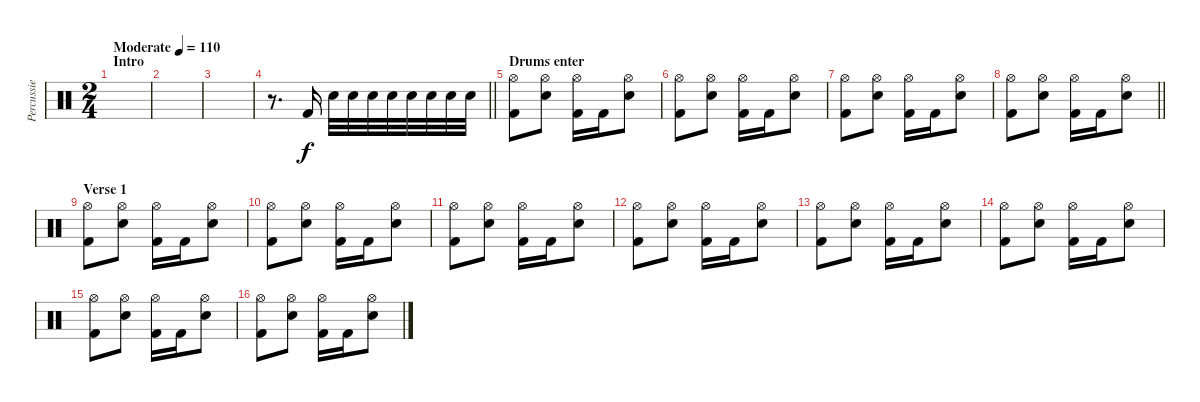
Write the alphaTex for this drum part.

\track ("Percussie" "Percussie") {instrument percussion}
\staff {score}
\articulation defaults
\ts (2 4)
\section ("" "Intro")
\tempo (110 "Moderate")
\clef neutral
\ks c
|
|
|
\barLineRight lightlight
r.8{d} "Kick (hit) 2".16 "Electric Snare (hit)".32 "Electric Snare (hit)".32 "Electric Snare (hit)".32 "Electric Snare (hit)".32 "Electric Snare (hit)".32 "Electric Snare (hit)".32 "Electric Snare (hit)".32 "Electric Snare (hit)".32 |
\section ("" "Drums enter")
("Hi-Hat (open)" "Kick (hit) 2").8 ("Hi-Hat (open)" "Electric Snare (hit)").8 ("Hi-Hat (open)" "Kick (hit) 2").16 "Kick (hit) 2".16 ("Hi-Hat (open)" "Electric Snare (hit)").8 |
("Hi-Hat (open)" "Kick (hit) 2").8 ("Hi-Hat (open)" "Electric Snare (hit)").8 ("Hi-Hat (open)" "Kick (hit) 2").16 "Kick (hit) 2".16 ("Hi-Hat (open)" "Electric Snare (hit)").8 |
("Hi-Hat (open)" "Kick (hit) 2").8 ("Hi-Hat (open)" "Electric Snare (hit)").8 ("Hi-Hat (open)" "Kick (hit) 2").16 "Kick (hit) 2".16 ("Hi-Hat (open)" "Electric Snare (hit)").8 |
\barLineRight lightlight
("Hi-Hat (open)" "Kick (hit) 2").8 ("Hi-Hat (open)" "Electric Snare (hit)").8 ("Hi-Hat (open)" "Kick (hit) 2").16 "Kick (hit) 2".16 ("Hi-Hat (open)" "Electric Snare (hit)").8 |
\section ("" "Verse 1")
("Hi-Hat (open)" "Kick (hit) 2").8 ("Hi-Hat (open)" "Electric Snare (hit)").8 ("Hi-Hat (open)" "Kick (hit) 2").16 "Kick (hit) 2".16 ("Hi-Hat (open)" "Electric Snare (hit)").8 |
("Hi-Hat (open)" "Kick (hit) 2").8 ("Hi-Hat (open)" "Electric Snare (hit)").8 ("Hi-Hat (open)" "Kick (hit) 2").16 "Kick (hit) 2".16 ("Hi-Hat (open)" "Electric Snare (hit)").8 |
("Hi-Hat (open)" "Kick (hit) 2").8 ("Hi-Hat (open)" "Electric Snare (hit)").8 ("Hi-Hat (open)" "Kick (hit) 2").16 "Kick (hit) 2".16 ("Hi-Hat (open)" "Electric Snare (hit)").8 |
("Hi-Hat (open)" "Kick (hit) 2").8 ("Hi-Hat (open)" "Electric Snare (hit)").8 ("Hi-Hat (open)" "Kick (hit) 2").16 "Kick (hit) 2".16 ("Hi-Hat (open)" "Electric Snare (hit)").8 |
("Hi-Hat (open)" "Kick (hit) 2").8 ("Hi-Hat (open)" "Electric Snare (hit)").8 ("Hi-Hat (open)" "Kick (hit) 2").16 "Kick (hit) 2".16 ("Hi-Hat (open)" "Electric Snare (hit)").8 |
("Hi-Hat (open)" "Kick (hit) 2").8 ("Hi-Hat (open)" "Electric Snare (hit)").8 ("Hi-Hat (open)" "Kick (hit) 2").16 "Kick (hit) 2".16 ("Hi-Hat (open)" "Electric Snare (hit)").8 |
("Hi-Hat (open)" "Kick (hit) 2").8 ("Hi-Hat (open)" "Electric Snare (hit)").8 ("Hi-Hat (open)" "Kick (hit) 2").16 "Kick (hit) 2".16 ("Hi-Hat (open)" "Electric Snare (hit)").8 |
("Hi-Hat (open)" "Kick (hit) 2").8 ("Hi-Hat (open)" "Electric Snare (hit)").8 ("Hi-Hat (open)" "Kick (hit) 2").16 "Kick (hit) 2".16 ("Hi-Hat (open)" "Electric Snare (hit)").8
